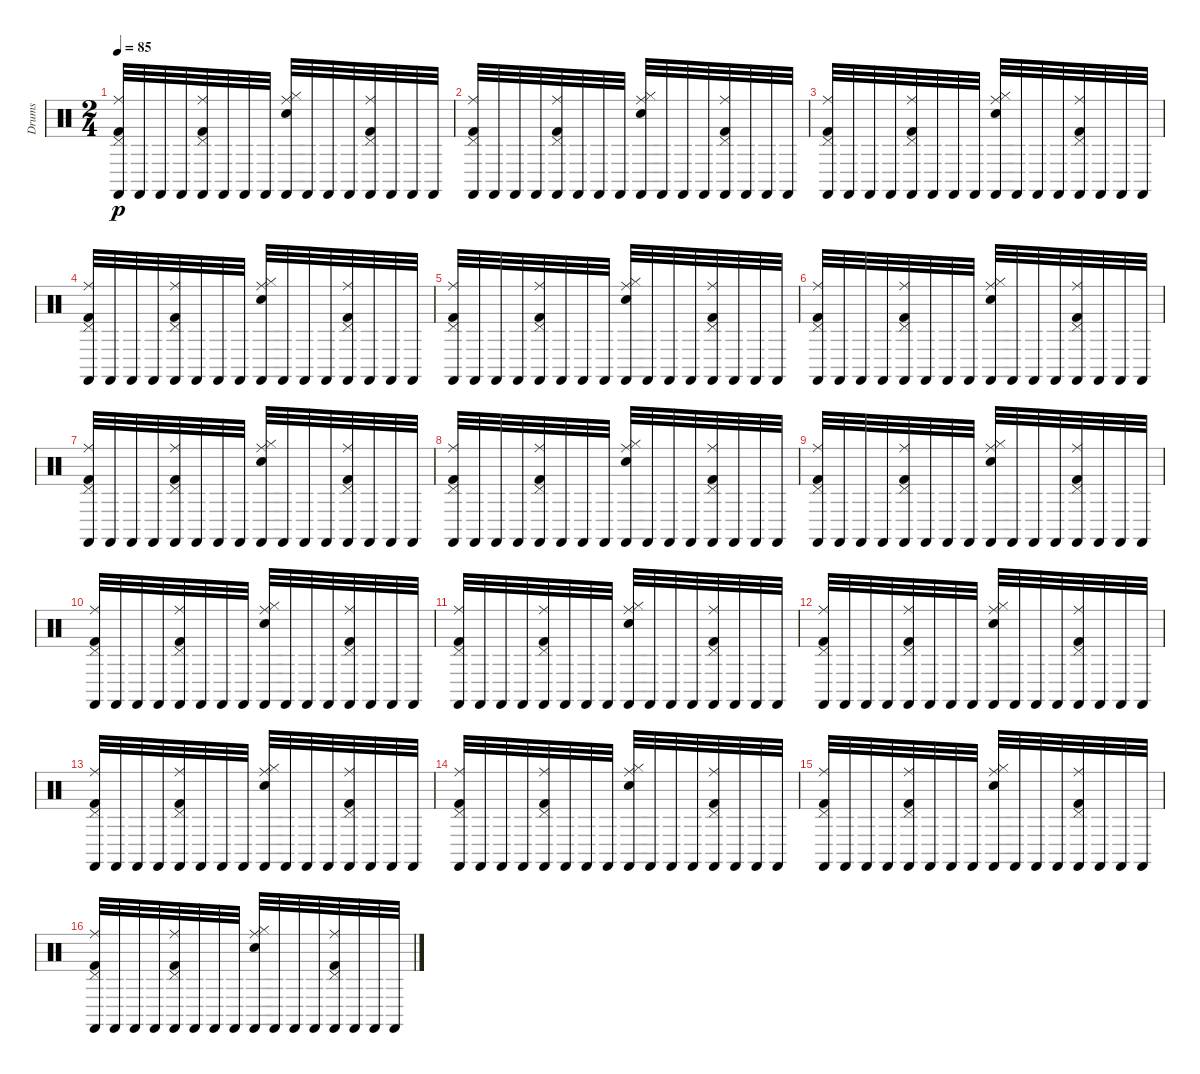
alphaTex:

\track ("Drums" "Drums") {instrument percussion}
\staff {score}
\articulation defaults
\ts (2 4)
\tempo 85
\clef neutral
\ks c
("Ride (middle)" "Castanets (hit)" "Pedal Hi-Hat (hit)" "Kick (hit) 2").32{dy p} "Castanets (hit)".32 "Castanets (hit)".32 "Castanets (hit)".32 ("Ride (middle)" "Castanets (hit)" "Pedal Hi-Hat (hit)" "Kick (hit) 2").32 "Castanets (hit)".32 "Castanets (hit)".32 "Castanets (hit)".32 ("Ride (middle)" "Castanets (hit)" "Hi-Hat (closed)" "Electric Snare (hit)").32 "Castanets (hit)".32 "Castanets (hit)".32 "Castanets (hit)".32 ("Ride (middle)" "Castanets (hit)" "Pedal Hi-Hat (hit)" "Kick (hit) 2").32 "Castanets (hit)".32 "Castanets (hit)".32 "Castanets (hit)".32 |
("Ride (middle)" "Castanets (hit)" "Pedal Hi-Hat (hit)" "Kick (hit) 2").32 "Castanets (hit)".32 "Castanets (hit)".32 "Castanets (hit)".32 ("Ride (middle)" "Castanets (hit)" "Pedal Hi-Hat (hit)" "Kick (hit) 2").32 "Castanets (hit)".32 "Castanets (hit)".32 "Castanets (hit)".32 ("Ride (middle)" "Castanets (hit)" "Hi-Hat (closed)" "Electric Snare (hit)").32 "Castanets (hit)".32 "Castanets (hit)".32 "Castanets (hit)".32 ("Ride (middle)" "Castanets (hit)" "Pedal Hi-Hat (hit)" "Kick (hit) 2").32 "Castanets (hit)".32 "Castanets (hit)".32 "Castanets (hit)".32 |
("Ride (middle)" "Castanets (hit)" "Pedal Hi-Hat (hit)" "Kick (hit) 2").32 "Castanets (hit)".32 "Castanets (hit)".32 "Castanets (hit)".32 ("Ride (middle)" "Castanets (hit)" "Pedal Hi-Hat (hit)" "Kick (hit) 2").32 "Castanets (hit)".32 "Castanets (hit)".32 "Castanets (hit)".32 ("Ride (middle)" "Castanets (hit)" "Hi-Hat (closed)" "Electric Snare (hit)").32 "Castanets (hit)".32 "Castanets (hit)".32 "Castanets (hit)".32 ("Ride (middle)" "Castanets (hit)" "Pedal Hi-Hat (hit)" "Kick (hit) 2").32 "Castanets (hit)".32 "Castanets (hit)".32 "Castanets (hit)".32 |
("Ride (middle)" "Castanets (hit)" "Pedal Hi-Hat (hit)" "Kick (hit) 2").32 "Castanets (hit)".32 "Castanets (hit)".32 "Castanets (hit)".32 ("Ride (middle)" "Castanets (hit)" "Pedal Hi-Hat (hit)" "Kick (hit) 2").32 "Castanets (hit)".32 "Castanets (hit)".32 "Castanets (hit)".32 ("Ride (middle)" "Castanets (hit)" "Hi-Hat (closed)" "Electric Snare (hit)").32 "Castanets (hit)".32 "Castanets (hit)".32 "Castanets (hit)".32 ("Ride (middle)" "Castanets (hit)" "Pedal Hi-Hat (hit)" "Kick (hit) 2").32 "Castanets (hit)".32 "Castanets (hit)".32 "Castanets (hit)".32 |
("Ride (middle)" "Castanets (hit)" "Pedal Hi-Hat (hit)" "Kick (hit) 2").32 "Castanets (hit)".32 "Castanets (hit)".32 "Castanets (hit)".32 ("Ride (middle)" "Castanets (hit)" "Pedal Hi-Hat (hit)" "Kick (hit) 2").32 "Castanets (hit)".32 "Castanets (hit)".32 "Castanets (hit)".32 ("Ride (middle)" "Castanets (hit)" "Hi-Hat (closed)" "Electric Snare (hit)").32 "Castanets (hit)".32 "Castanets (hit)".32 "Castanets (hit)".32 ("Ride (middle)" "Castanets (hit)" "Pedal Hi-Hat (hit)" "Kick (hit) 2").32 "Castanets (hit)".32 "Castanets (hit)".32 "Castanets (hit)".32 |
("Ride (middle)" "Castanets (hit)" "Pedal Hi-Hat (hit)" "Kick (hit) 2").32 "Castanets (hit)".32 "Castanets (hit)".32 "Castanets (hit)".32 ("Ride (middle)" "Castanets (hit)" "Pedal Hi-Hat (hit)" "Kick (hit) 2").32 "Castanets (hit)".32 "Castanets (hit)".32 "Castanets (hit)".32 ("Ride (middle)" "Castanets (hit)" "Hi-Hat (closed)" "Electric Snare (hit)").32 "Castanets (hit)".32 "Castanets (hit)".32 "Castanets (hit)".32 ("Ride (middle)" "Castanets (hit)" "Pedal Hi-Hat (hit)" "Kick (hit) 2").32 "Castanets (hit)".32 "Castanets (hit)".32 "Castanets (hit)".32 |
("Ride (middle)" "Castanets (hit)" "Pedal Hi-Hat (hit)" "Kick (hit) 2").32 "Castanets (hit)".32 "Castanets (hit)".32 "Castanets (hit)".32 ("Ride (middle)" "Castanets (hit)" "Pedal Hi-Hat (hit)" "Kick (hit) 2").32 "Castanets (hit)".32 "Castanets (hit)".32 "Castanets (hit)".32 ("Ride (middle)" "Castanets (hit)" "Hi-Hat (closed)" "Electric Snare (hit)").32 "Castanets (hit)".32 "Castanets (hit)".32 "Castanets (hit)".32 ("Ride (middle)" "Castanets (hit)" "Pedal Hi-Hat (hit)" "Kick (hit) 2").32 "Castanets (hit)".32 "Castanets (hit)".32 "Castanets (hit)".32 |
("Ride (middle)" "Castanets (hit)" "Pedal Hi-Hat (hit)" "Kick (hit) 2").32 "Castanets (hit)".32 "Castanets (hit)".32 "Castanets (hit)".32 ("Ride (middle)" "Castanets (hit)" "Pedal Hi-Hat (hit)" "Kick (hit) 2").32 "Castanets (hit)".32 "Castanets (hit)".32 "Castanets (hit)".32 ("Ride (middle)" "Castanets (hit)" "Hi-Hat (closed)" "Electric Snare (hit)").32 "Castanets (hit)".32 "Castanets (hit)".32 "Castanets (hit)".32 ("Ride (middle)" "Castanets (hit)" "Pedal Hi-Hat (hit)" "Kick (hit) 2").32 "Castanets (hit)".32 "Castanets (hit)".32 "Castanets (hit)".32 |
("Ride (middle)" "Castanets (hit)" "Pedal Hi-Hat (hit)" "Kick (hit) 2").32 "Castanets (hit)".32 "Castanets (hit)".32 "Castanets (hit)".32 ("Ride (middle)" "Castanets (hit)" "Pedal Hi-Hat (hit)" "Kick (hit) 2").32 "Castanets (hit)".32 "Castanets (hit)".32 "Castanets (hit)".32 ("Ride (middle)" "Castanets (hit)" "Hi-Hat (closed)" "Electric Snare (hit)").32 "Castanets (hit)".32 "Castanets (hit)".32 "Castanets (hit)".32 ("Ride (middle)" "Castanets (hit)" "Pedal Hi-Hat (hit)" "Kick (hit) 2").32 "Castanets (hit)".32 "Castanets (hit)".32 "Castanets (hit)".32 |
("Ride (middle)" "Castanets (hit)" "Pedal Hi-Hat (hit)" "Kick (hit) 2").32 "Castanets (hit)".32 "Castanets (hit)".32 "Castanets (hit)".32 ("Ride (middle)" "Castanets (hit)" "Pedal Hi-Hat (hit)" "Kick (hit) 2").32 "Castanets (hit)".32 "Castanets (hit)".32 "Castanets (hit)".32 ("Ride (middle)" "Castanets (hit)" "Hi-Hat (closed)" "Electric Snare (hit)").32 "Castanets (hit)".32 "Castanets (hit)".32 "Castanets (hit)".32 ("Ride (middle)" "Castanets (hit)" "Pedal Hi-Hat (hit)" "Kick (hit) 2").32 "Castanets (hit)".32 "Castanets (hit)".32 "Castanets (hit)".32 |
("Ride (middle)" "Castanets (hit)" "Pedal Hi-Hat (hit)" "Kick (hit) 2").32 "Castanets (hit)".32 "Castanets (hit)".32 "Castanets (hit)".32 ("Ride (middle)" "Castanets (hit)" "Pedal Hi-Hat (hit)" "Kick (hit) 2").32 "Castanets (hit)".32 "Castanets (hit)".32 "Castanets (hit)".32 ("Ride (middle)" "Castanets (hit)" "Hi-Hat (closed)" "Electric Snare (hit)").32 "Castanets (hit)".32 "Castanets (hit)".32 "Castanets (hit)".32 ("Ride (middle)" "Castanets (hit)" "Pedal Hi-Hat (hit)" "Kick (hit) 2").32 "Castanets (hit)".32 "Castanets (hit)".32 "Castanets (hit)".32 |
("Ride (middle)" "Castanets (hit)" "Pedal Hi-Hat (hit)" "Kick (hit) 2").32 "Castanets (hit)".32 "Castanets (hit)".32 "Castanets (hit)".32 ("Ride (middle)" "Castanets (hit)" "Pedal Hi-Hat (hit)" "Kick (hit) 2").32 "Castanets (hit)".32 "Castanets (hit)".32 "Castanets (hit)".32 ("Ride (middle)" "Castanets (hit)" "Hi-Hat (closed)" "Electric Snare (hit)").32 "Castanets (hit)".32 "Castanets (hit)".32 "Castanets (hit)".32 ("Ride (middle)" "Castanets (hit)" "Pedal Hi-Hat (hit)" "Kick (hit) 2").32 "Castanets (hit)".32 "Castanets (hit)".32 "Castanets (hit)".32 |
("Ride (middle)" "Castanets (hit)" "Pedal Hi-Hat (hit)" "Kick (hit) 2").32 "Castanets (hit)".32 "Castanets (hit)".32 "Castanets (hit)".32 ("Ride (middle)" "Castanets (hit)" "Pedal Hi-Hat (hit)" "Kick (hit) 2").32 "Castanets (hit)".32 "Castanets (hit)".32 "Castanets (hit)".32 ("Ride (middle)" "Castanets (hit)" "Hi-Hat (closed)" "Electric Snare (hit)").32 "Castanets (hit)".32 "Castanets (hit)".32 "Castanets (hit)".32 ("Ride (middle)" "Castanets (hit)" "Pedal Hi-Hat (hit)" "Kick (hit) 2").32 "Castanets (hit)".32 "Castanets (hit)".32 "Castanets (hit)".32 |
("Ride (middle)" "Castanets (hit)" "Pedal Hi-Hat (hit)" "Kick (hit) 2").32 "Castanets (hit)".32 "Castanets (hit)".32 "Castanets (hit)".32 ("Ride (middle)" "Castanets (hit)" "Pedal Hi-Hat (hit)" "Kick (hit) 2").32 "Castanets (hit)".32 "Castanets (hit)".32 "Castanets (hit)".32 ("Ride (middle)" "Castanets (hit)" "Hi-Hat (closed)" "Electric Snare (hit)").32 "Castanets (hit)".32 "Castanets (hit)".32 "Castanets (hit)".32 ("Ride (middle)" "Castanets (hit)" "Pedal Hi-Hat (hit)" "Kick (hit) 2").32 "Castanets (hit)".32 "Castanets (hit)".32 "Castanets (hit)".32 |
("Ride (middle)" "Castanets (hit)" "Pedal Hi-Hat (hit)" "Kick (hit) 2").32 "Castanets (hit)".32 "Castanets (hit)".32 "Castanets (hit)".32 ("Ride (middle)" "Castanets (hit)" "Pedal Hi-Hat (hit)" "Kick (hit) 2").32 "Castanets (hit)".32 "Castanets (hit)".32 "Castanets (hit)".32 ("Ride (middle)" "Castanets (hit)" "Hi-Hat (closed)" "Electric Snare (hit)").32 "Castanets (hit)".32 "Castanets (hit)".32 "Castanets (hit)".32 ("Ride (middle)" "Castanets (hit)" "Pedal Hi-Hat (hit)" "Kick (hit) 2").32 "Castanets (hit)".32 "Castanets (hit)".32 "Castanets (hit)".32 |
("Ride (middle)" "Castanets (hit)" "Pedal Hi-Hat (hit)" "Kick (hit) 2").32 "Castanets (hit)".32 "Castanets (hit)".32 "Castanets (hit)".32 ("Ride (middle)" "Castanets (hit)" "Pedal Hi-Hat (hit)" "Kick (hit) 2").32 "Castanets (hit)".32 "Castanets (hit)".32 "Castanets (hit)".32 ("Ride (middle)" "Castanets (hit)" "Hi-Hat (closed)" "Electric Snare (hit)").32 "Castanets (hit)".32 "Castanets (hit)".32 "Castanets (hit)".32 ("Ride (middle)" "Castanets (hit)" "Pedal Hi-Hat (hit)" "Kick (hit) 2").32 "Castanets (hit)".32 "Castanets (hit)".32 "Castanets (hit)".32
